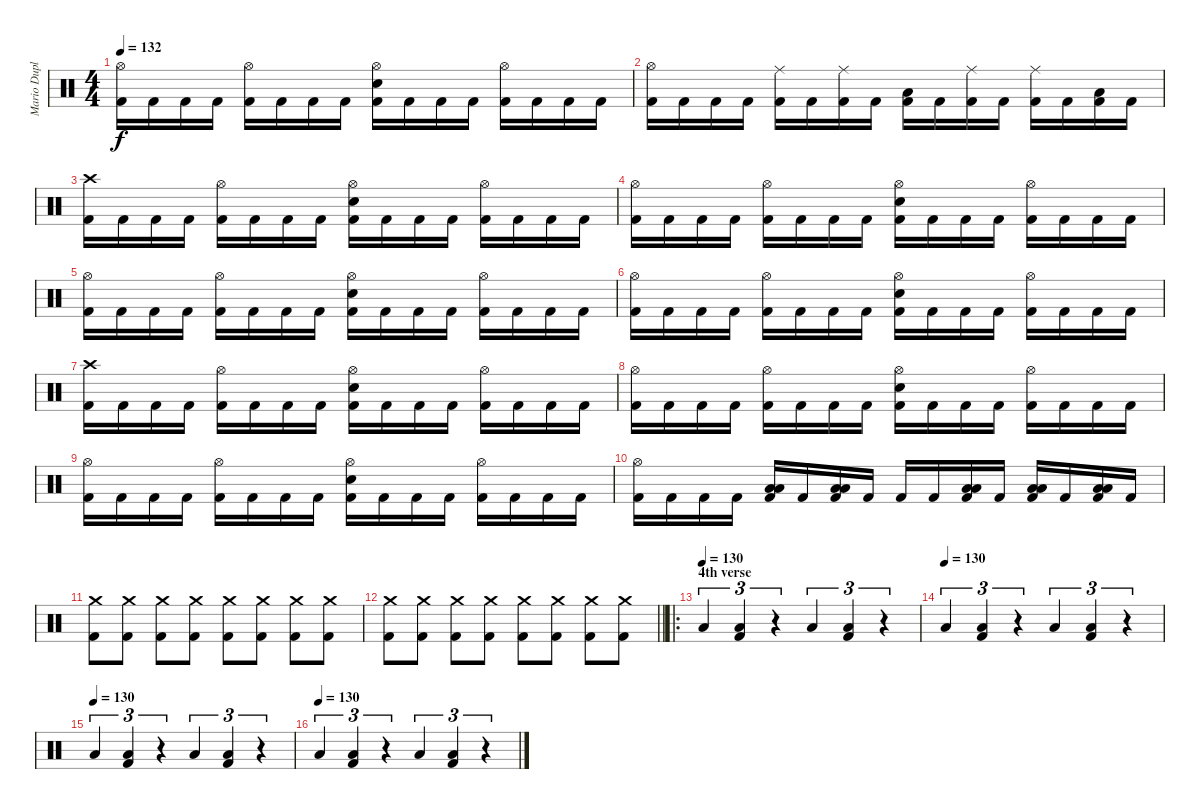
\track ("Mario Duplantier" "Mario Dupl") {instrument percussion}
\staff {score}
\articulation defaults
\ts (4 4)
\tempo 132
\clef neutral
\ks c
("Hi-Hat (open)" "Kick (hit) 2").16{dy f} "Kick (hit) 2".16 "Kick (hit) 2".16 "Kick (hit) 2".16 ("Hi-Hat (open)" "Kick (hit) 2").16 "Kick (hit) 2".16 "Kick (hit) 2".16 "Kick (hit) 2".16 ("Hi-Hat (open)" "Snare (hit) 2" "Kick (hit) 2").16 "Kick (hit) 2".16 "Kick (hit) 2".16 "Kick (hit) 2".16 ("Hi-Hat (open)" "Kick (hit) 2").16 "Kick (hit) 2".16 "Kick (hit) 2".16 "Kick (hit) 2".16 |
("Hi-Hat (open)" "Kick (hit) 2").16 "Kick (hit) 2".16 "Kick (hit) 2".16 "Kick (hit) 2".16 ("Ride (middle)" "Kick (hit) 2").16 "Kick (hit) 2".16 ("Ride (middle)" "Kick (hit) 2").16 "Kick (hit) 2".16 ("Low Floor Tom (hit)" "Kick (hit) 2").16 "Kick (hit) 2".16 ("Ride (middle)" "Kick (hit) 2").16 "Kick (hit) 2".16 ("Ride (middle)" "Kick (hit) 2").16 "Kick (hit) 2".16 ("Low Floor Tom (hit)" "Kick (hit) 2").16 "Kick (hit) 2".16 |
("Crash high (hit)" "Kick (hit) 2").16 "Kick (hit) 2".16 "Kick (hit) 2".16 "Kick (hit) 2".16 ("Hi-Hat (open)" "Kick (hit) 2").16 "Kick (hit) 2".16 "Kick (hit) 2".16 "Kick (hit) 2".16 ("Hi-Hat (open)" "Snare (hit) 2" "Kick (hit) 2").16 "Kick (hit) 2".16 "Kick (hit) 2".16 "Kick (hit) 2".16 ("Hi-Hat (open)" "Kick (hit) 2").16 "Kick (hit) 2".16 "Kick (hit) 2".16 "Kick (hit) 2".16 |
("Hi-Hat (open)" "Kick (hit) 2").16 "Kick (hit) 2".16 "Kick (hit) 2".16 "Kick (hit) 2".16 ("Hi-Hat (open)" "Kick (hit) 2").16 "Kick (hit) 2".16 "Kick (hit) 2".16 "Kick (hit) 2".16 ("Hi-Hat (open)" "Electric Snare (hit)" "Kick (hit) 2").16 "Kick (hit) 2".16 "Kick (hit) 2".16 "Kick (hit) 2".16 ("Hi-Hat (open)" "Kick (hit) 2").16 "Kick (hit) 2".16 "Kick (hit) 2".16 "Kick (hit) 2".16 |
("Hi-Hat (open)" "Kick (hit) 2").16 "Kick (hit) 2".16 "Kick (hit) 2".16 "Kick (hit) 2".16 ("Hi-Hat (open)" "Kick (hit) 2").16 "Kick (hit) 2".16 "Kick (hit) 2".16 "Kick (hit) 2".16 ("Hi-Hat (open)" "Snare (hit) 2" "Kick (hit) 2").16 "Kick (hit) 2".16 "Kick (hit) 2".16 "Kick (hit) 2".16 ("Hi-Hat (open)" "Kick (hit) 2").16 "Kick (hit) 2".16 "Kick (hit) 2".16 "Kick (hit) 2".16 |
("Hi-Hat (open)" "Kick (hit) 2").16 "Kick (hit) 2".16 "Kick (hit) 2".16 "Kick (hit) 2".16 ("Hi-Hat (open)" "Kick (hit) 2").16 "Kick (hit) 2".16 "Kick (hit) 2".16 "Kick (hit) 2".16 ("Hi-Hat (open)" "Electric Snare (hit)" "Kick (hit) 2").16 "Kick (hit) 2".16 "Kick (hit) 2".16 "Kick (hit) 2".16 ("Hi-Hat (open)" "Kick (hit) 2").16 "Kick (hit) 2".16 "Kick (hit) 2".16 "Kick (hit) 2".16 |
("Crash high (hit)" "Kick (hit) 2").16 "Kick (hit) 2".16 "Kick (hit) 2".16 "Kick (hit) 2".16 ("Hi-Hat (open)" "Kick (hit) 2").16 "Kick (hit) 2".16 "Kick (hit) 2".16 "Kick (hit) 2".16 ("Hi-Hat (open)" "Snare (hit) 2" "Kick (hit) 2").16 "Kick (hit) 2".16 "Kick (hit) 2".16 "Kick (hit) 2".16 ("Hi-Hat (open)" "Kick (hit) 2").16 "Kick (hit) 2".16 "Kick (hit) 2".16 "Kick (hit) 2".16 |
("Hi-Hat (open)" "Kick (hit) 2").16 "Kick (hit) 2".16 "Kick (hit) 2".16 "Kick (hit) 2".16 ("Hi-Hat (open)" "Kick (hit) 2").16 "Kick (hit) 2".16 "Kick (hit) 2".16 "Kick (hit) 2".16 ("Hi-Hat (open)" "Electric Snare (hit)" "Kick (hit) 2").16 "Kick (hit) 2".16 "Kick (hit) 2".16 "Kick (hit) 2".16 ("Hi-Hat (open)" "Kick (hit) 2").16 "Kick (hit) 2".16 "Kick (hit) 2".16 "Kick (hit) 2".16 |
("Hi-Hat (open)" "Kick (hit) 2").16 "Kick (hit) 2".16 "Kick (hit) 2".16 "Kick (hit) 2".16 ("Hi-Hat (open)" "Kick (hit) 2").16 "Kick (hit) 2".16 "Kick (hit) 2".16 "Kick (hit) 2".16 ("Hi-Hat (open)" "Snare (hit) 2" "Kick (hit) 2").16 "Kick (hit) 2".16 "Kick (hit) 2".16 "Kick (hit) 2".16 ("Hi-Hat (open)" "Kick (hit) 2").16 "Kick (hit) 2".16 "Kick (hit) 2".16 "Kick (hit) 2".16 |
("Hi-Hat (open)" "Kick (hit) 2").16 "Kick (hit) 2".16 "Kick (hit) 2".16 "Kick (hit) 2".16 ("Low Floor Tom (hit)" "Low Floor Tom (hit)" "Kick (hit) 2").16 "Kick (hit) 2".16 ("Low Floor Tom (hit)" "Low Floor Tom (hit)" "Kick (hit) 2").16 "Kick (hit) 2".16 "Kick (hit) 2".16 "Kick (hit) 2".16 ("Low Floor Tom (hit)" "Low Floor Tom (hit)" "Kick (hit) 2").16 "Kick (hit) 2".16 ("Low Floor Tom (hit)" "Low Floor Tom (hit)" "Kick (hit) 2").16 "Kick (hit) 2".16 ("Low Floor Tom (hit)" "Low Floor Tom (hit)" "Kick (hit) 2").16 "Kick (hit) 2".16 |
("Crash medium (hit)" "Kick (hit) 2").8 ("Crash medium (hit)" "Kick (hit) 2").8 ("Crash medium (hit)" "Kick (hit) 2").8 ("Crash medium (hit)" "Kick (hit) 2").8 ("Crash medium (hit)" "Kick (hit) 2").8 ("Crash medium (hit)" "Kick (hit) 2").8 ("Crash medium (hit)" "Kick (hit) 2").8 ("Crash medium (hit)" "Kick (hit) 2").8 |
\barLineRight lightlight
("Crash medium (hit)" "Kick (hit) 2").8 ("Crash medium (hit)" "Kick (hit) 2").8 ("Crash medium (hit)" "Kick (hit) 2").8 ("Crash medium (hit)" "Kick (hit) 2").8 ("Crash medium (hit)" "Kick (hit) 2").8 ("Crash medium (hit)" "Kick (hit) 2").8 ("Crash medium (hit)" "Kick (hit) 2").8 ("Crash medium (hit)" "Kick (hit) 2").8 |
\ro
\section ("" "4th verse")
\tempo (130)
"Low Floor Tom (hit)".4{tu (3 2)} ("Low Floor Tom (hit)" "Kick (hit) 2").4{tu (3 2)} r.4{tu (3 2)} "Low Floor Tom (hit)".4{tu (3 2)} ("Low Floor Tom (hit)" "Kick (hit) 2").4{tu (3 2)} r.4{tu (3 2)} |
\tempo (130)
"Low Floor Tom (hit)".4{tu (3 2)} ("Low Floor Tom (hit)" "Kick (hit) 2").4{tu (3 2)} r.4{tu (3 2)} "Low Floor Tom (hit)".4{tu (3 2)} ("Low Floor Tom (hit)" "Kick (hit) 2").4{tu (3 2)} r.4{tu (3 2)} |
\tempo (130)
"Low Floor Tom (hit)".4{tu (3 2)} ("Low Floor Tom (hit)" "Kick (hit) 2").4{tu (3 2)} r.4{tu (3 2)} "Low Floor Tom (hit)".4{tu (3 2)} ("Low Floor Tom (hit)" "Kick (hit) 2").4{tu (3 2)} r.4{tu (3 2)} |
\tempo (130)
"Low Floor Tom (hit)".4{tu (3 2)} ("Low Floor Tom (hit)" "Kick (hit) 2").4{tu (3 2)} r.4{tu (3 2)} "Low Floor Tom (hit)".4{tu (3 2)} ("Low Floor Tom (hit)" "Kick (hit) 2").4{tu (3 2)} r.4{tu (3 2)}
